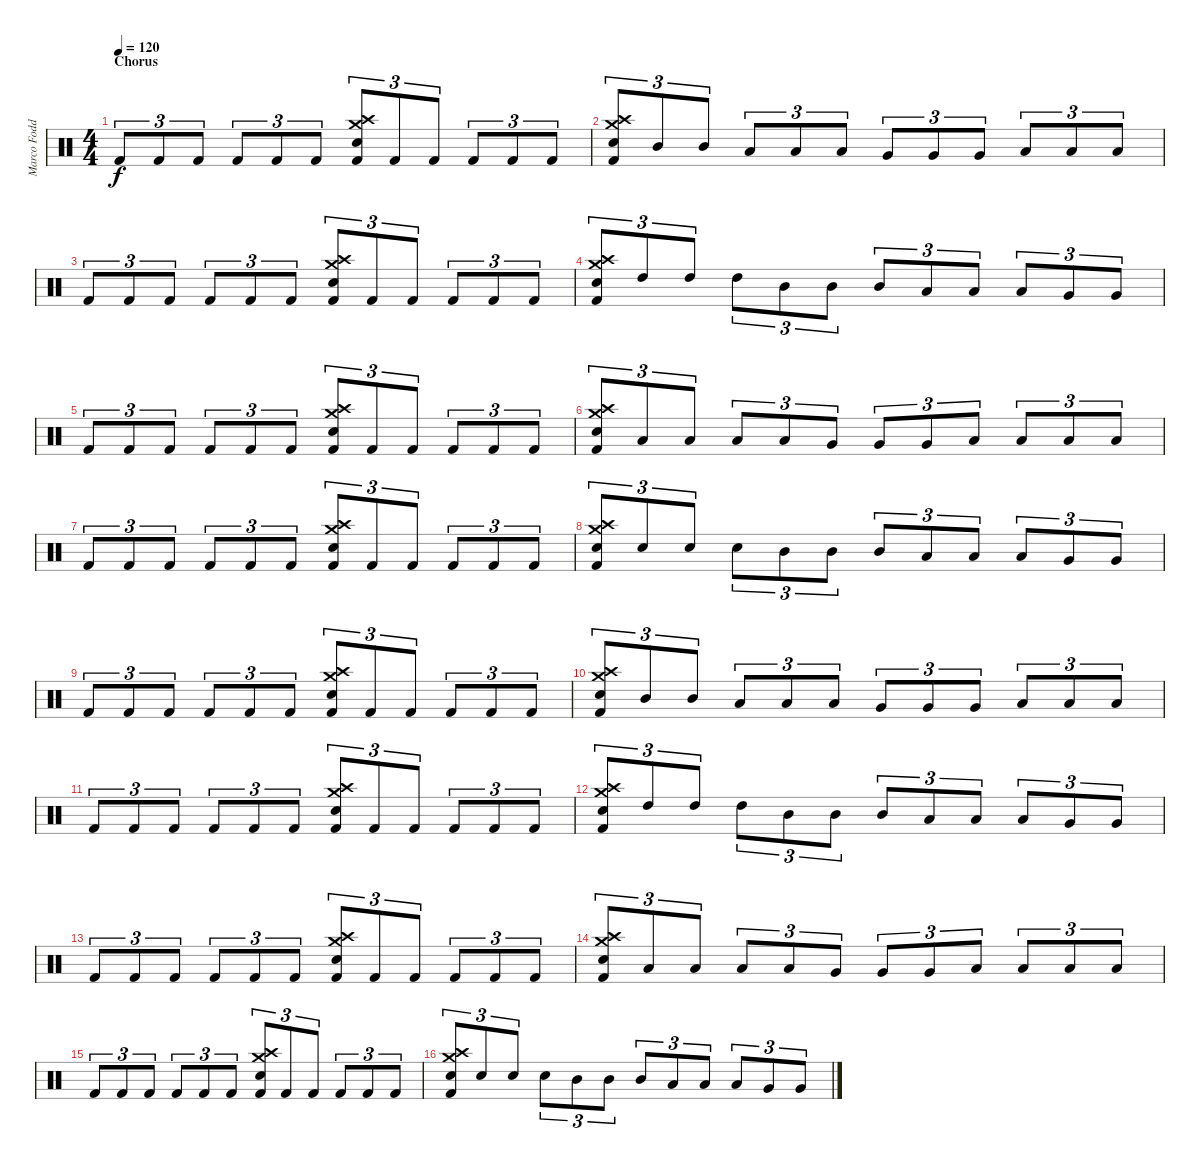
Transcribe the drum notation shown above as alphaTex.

\track ("Marco Foddis " "Marco Fodd") {instrument percussion}
\staff {score}
\articulation defaults
\ts (4 4)
\section ("" "Chorus")
\tempo 120
\clef neutral
\ks c "Kick (hit) 2".8{tu (3 2) dy f} "Kick (hit) 2".8{tu (3 2)} "Kick (hit) 2".8{tu (3 2)} "Kick (hit) 2".8{tu (3 2)} "Kick (hit) 2".8{tu (3 2)} "Kick (hit) 2".8{tu (3 2)}
("Crash high (hit)" "Crash medium (hit)" "Electric Snare (hit)" "Kick (hit) 2").8{tu (3 2)} "Kick (hit) 2".8{tu (3 2)} "Kick (hit) 2".8{tu (3 2)} "Kick (hit) 2".8{tu (3 2)} "Kick (hit) 2".8{tu (3 2)} "Kick (hit) 2".8{tu (3 2)} |
("Crash high (hit)" "Crash medium (hit)" "Electric Snare (hit)" "Kick (hit) 2").8{tu (3 2)} "Mid Tom (hit)".8{tu (3 2)} "Mid Tom (hit)".8{tu (3 2)} "Low Tom (hit)".8{tu (3 2)} "Low Tom (hit)".8{tu (3 2)} "Low Tom (hit)".8{tu (3 2)} "Very Low Tom (hit)".8{tu (3 2)} "Very Low Tom (hit)".8{tu (3 2)} "Very Low Tom (hit)".8{tu (3 2)} "Low Floor Tom (hit)".8{tu (3 2)} "Low Floor Tom (hit)".8{tu (3 2)} "Low Floor Tom (hit)".8{tu (3 2)} |
"Kick (hit) 2".8{tu (3 2)} "Kick (hit) 2".8{tu (3 2)} "Kick (hit) 2".8{tu (3 2)} "Kick (hit) 2".8{tu (3 2)} "Kick (hit) 2".8{tu (3 2)} "Kick (hit) 2".8{tu (3 2)} ("Crash high (hit)" "Crash medium (hit)" "Electric Snare (hit)" "Kick (hit) 2").8{tu (3 2)} "Kick (hit) 2".8{tu (3 2)} "Kick (hit) 2".8{tu (3 2)} "Kick (hit) 2".8{tu (3 2)} "Kick (hit) 2".8{tu (3 2)} "Kick (hit) 2".8{tu (3 2)} |
("Crash high (hit)" "Crash medium (hit)" "Electric Snare (hit)" "Kick (hit) 2").8{tu (3 2)} "High Tom (hit)".8{tu (3 2)} "High Tom (hit)".8{tu (3 2)} "High Tom (hit)".8{tu (3 2)} "Mid Tom (hit)".8{tu (3 2)} "Mid Tom (hit)".8{tu (3 2)} "Mid Tom (hit)".8{tu (3 2)} "Low Tom (hit)".8{tu (3 2)} "Low Tom (hit)".8{tu (3 2)} "Low Tom (hit)".8{tu (3 2)} "Very Low Tom (hit)".8{tu (3 2)} "Very Low Tom (hit)".8{tu (3 2)} |
"Kick (hit) 2".8{tu (3 2)} "Kick (hit) 2".8{tu (3 2)} "Kick (hit) 2".8{tu (3 2)} "Kick (hit) 2".8{tu (3 2)} "Kick (hit) 2".8{tu (3 2)} "Kick (hit) 2".8{tu (3 2)} ("Crash high (hit)" "Crash medium (hit)" "Electric Snare (hit)" "Kick (hit) 2").8{tu (3 2)} "Kick (hit) 2".8{tu (3 2)} "Kick (hit) 2".8{tu (3 2)} "Kick (hit) 2".8{tu (3 2)} "Kick (hit) 2".8{tu (3 2)} "Kick (hit) 2".8{tu (3 2)} |
("Crash high (hit)" "Crash medium (hit)" "Electric Snare (hit)" "Kick (hit) 2").8{tu (3 2)} "Low Tom (hit)".8{tu (3 2)} "Low Tom (hit)".8{tu (3 2)} "Low Tom (hit)".8{tu (3 2)} "Low Tom (hit)".8{tu (3 2)} "Very Low Tom (hit)".8{tu (3 2)} "Very Low Tom (hit)".8{tu (3 2)} "Very Low Tom (hit)".8{tu (3 2)} "Low Floor Tom (hit)".8{tu (3 2)} "Low Floor Tom (hit)".8{tu (3 2)} "Low Floor Tom (hit)".8{tu (3 2)} "Low Floor Tom (hit)".8{tu (3 2)} |
"Kick (hit) 2".8{tu (3 2)} "Kick (hit) 2".8{tu (3 2)} "Kick (hit) 2".8{tu (3 2)} "Kick (hit) 2".8{tu (3 2)} "Kick (hit) 2".8{tu (3 2)} "Kick (hit) 2".8{tu (3 2)} ("Crash high (hit)" "Crash medium (hit)" "Electric Snare (hit)" "Kick (hit) 2").8{tu (3 2)} "Kick (hit) 2".8{tu (3 2)} "Kick (hit) 2".8{tu (3 2)} "Kick (hit) 2".8{tu (3 2)} "Kick (hit) 2".8{tu (3 2)} "Kick (hit) 2".8{tu (3 2)} |
("Crash high (hit)" "Crash medium (hit)" "Electric Snare (hit)" "Kick (hit) 2").8{tu (3 2)} "Electric Snare (hit)".8{tu (3 2)} "Electric Snare (hit)".8{tu (3 2)} "Electric Snare (hit)".8{tu (3 2)} "Mid Tom (hit)".8{tu (3 2)} "Mid Tom (hit)".8{tu (3 2)} "Mid Tom (hit)".8{tu (3 2)} "Low Tom (hit)".8{tu (3 2)} "Low Tom (hit)".8{tu (3 2)} "Low Tom (hit)".8{tu (3 2)} "Very Low Tom (hit)".8{tu (3 2)} "Very Low Tom (hit)".8{tu (3 2)} |
"Kick (hit) 2".8{tu (3 2)} "Kick (hit) 2".8{tu (3 2)} "Kick (hit) 2".8{tu (3 2)} "Kick (hit) 2".8{tu (3 2)} "Kick (hit) 2".8{tu (3 2)} "Kick (hit) 2".8{tu (3 2)} ("Crash high (hit)" "Crash medium (hit)" "Electric Snare (hit)" "Kick (hit) 2").8{tu (3 2)} "Kick (hit) 2".8{tu (3 2)} "Kick (hit) 2".8{tu (3 2)} "Kick (hit) 2".8{tu (3 2)} "Kick (hit) 2".8{tu (3 2)} "Kick (hit) 2".8{tu (3 2)} |
("Crash high (hit)" "Crash medium (hit)" "Electric Snare (hit)" "Kick (hit) 2").8{tu (3 2)} "Mid Tom (hit)".8{tu (3 2)} "Mid Tom (hit)".8{tu (3 2)} "Low Tom (hit)".8{tu (3 2)} "Low Tom (hit)".8{tu (3 2)} "Low Tom (hit)".8{tu (3 2)} "Very Low Tom (hit)".8{tu (3 2)} "Very Low Tom (hit)".8{tu (3 2)} "Very Low Tom (hit)".8{tu (3 2)} "Low Floor Tom (hit)".8{tu (3 2)} "Low Floor Tom (hit)".8{tu (3 2)} "Low Floor Tom (hit)".8{tu (3 2)} |
"Kick (hit) 2".8{tu (3 2)} "Kick (hit) 2".8{tu (3 2)} "Kick (hit) 2".8{tu (3 2)} "Kick (hit) 2".8{tu (3 2)} "Kick (hit) 2".8{tu (3 2)} "Kick (hit) 2".8{tu (3 2)} ("Crash high (hit)" "Crash medium (hit)" "Electric Snare (hit)" "Kick (hit) 2").8{tu (3 2)} "Kick (hit) 2".8{tu (3 2)} "Kick (hit) 2".8{tu (3 2)} "Kick (hit) 2".8{tu (3 2)} "Kick (hit) 2".8{tu (3 2)} "Kick (hit) 2".8{tu (3 2)} |
("Crash high (hit)" "Crash medium (hit)" "Electric Snare (hit)" "Kick (hit) 2").8{tu (3 2)} "High Tom (hit)".8{tu (3 2)} "High Tom (hit)".8{tu (3 2)} "High Tom (hit)".8{tu (3 2)} "Mid Tom (hit)".8{tu (3 2)} "Mid Tom (hit)".8{tu (3 2)} "Mid Tom (hit)".8{tu (3 2)} "Low Tom (hit)".8{tu (3 2)} "Low Tom (hit)".8{tu (3 2)} "Low Tom (hit)".8{tu (3 2)} "Very Low Tom (hit)".8{tu (3 2)} "Very Low Tom (hit)".8{tu (3 2)} |
"Kick (hit) 2".8{tu (3 2)} "Kick (hit) 2".8{tu (3 2)} "Kick (hit) 2".8{tu (3 2)} "Kick (hit) 2".8{tu (3 2)} "Kick (hit) 2".8{tu (3 2)} "Kick (hit) 2".8{tu (3 2)} ("Crash high (hit)" "Crash medium (hit)" "Electric Snare (hit)" "Kick (hit) 2").8{tu (3 2)} "Kick (hit) 2".8{tu (3 2)} "Kick (hit) 2".8{tu (3 2)} "Kick (hit) 2".8{tu (3 2)} "Kick (hit) 2".8{tu (3 2)} "Kick (hit) 2".8{tu (3 2)} |
("Crash high (hit)" "Crash medium (hit)" "Electric Snare (hit)" "Kick (hit) 2").8{tu (3 2)} "Low Tom (hit)".8{tu (3 2)} "Low Tom (hit)".8{tu (3 2)} "Low Tom (hit)".8{tu (3 2)} "Low Tom (hit)".8{tu (3 2)} "Very Low Tom (hit)".8{tu (3 2)} "Very Low Tom (hit)".8{tu (3 2)} "Very Low Tom (hit)".8{tu (3 2)} "Low Floor Tom (hit)".8{tu (3 2)} "Low Floor Tom (hit)".8{tu (3 2)} "Low Floor Tom (hit)".8{tu (3 2)} "Low Floor Tom (hit)".8{tu (3 2)} |
"Kick (hit) 2".8{tu (3 2)} "Kick (hit) 2".8{tu (3 2)} "Kick (hit) 2".8{tu (3 2)} "Kick (hit) 2".8{tu (3 2)} "Kick (hit) 2".8{tu (3 2)} "Kick (hit) 2".8{tu (3 2)} ("Crash high (hit)" "Crash medium (hit)" "Electric Snare (hit)" "Kick (hit) 2").8{tu (3 2)} "Kick (hit) 2".8{tu (3 2)} "Kick (hit) 2".8{tu (3 2)} "Kick (hit) 2".8{tu (3 2)} "Kick (hit) 2".8{tu (3 2)} "Kick (hit) 2".8{tu (3 2)} |
("Crash high (hit)" "Crash medium (hit)" "Electric Snare (hit)" "Kick (hit) 2").8{tu (3 2)} "Electric Snare (hit)".8{tu (3 2)} "Electric Snare (hit)".8{tu (3 2)} "Electric Snare (hit)".8{tu (3 2)} "Mid Tom (hit)".8{tu (3 2)} "Mid Tom (hit)".8{tu (3 2)} "Mid Tom (hit)".8{tu (3 2)} "Low Tom (hit)".8{tu (3 2)} "Low Tom (hit)".8{tu (3 2)} "Low Tom (hit)".8{tu (3 2)} "Very Low Tom (hit)".8{tu (3 2)} "Very Low Tom (hit)".8{tu (3 2)}
